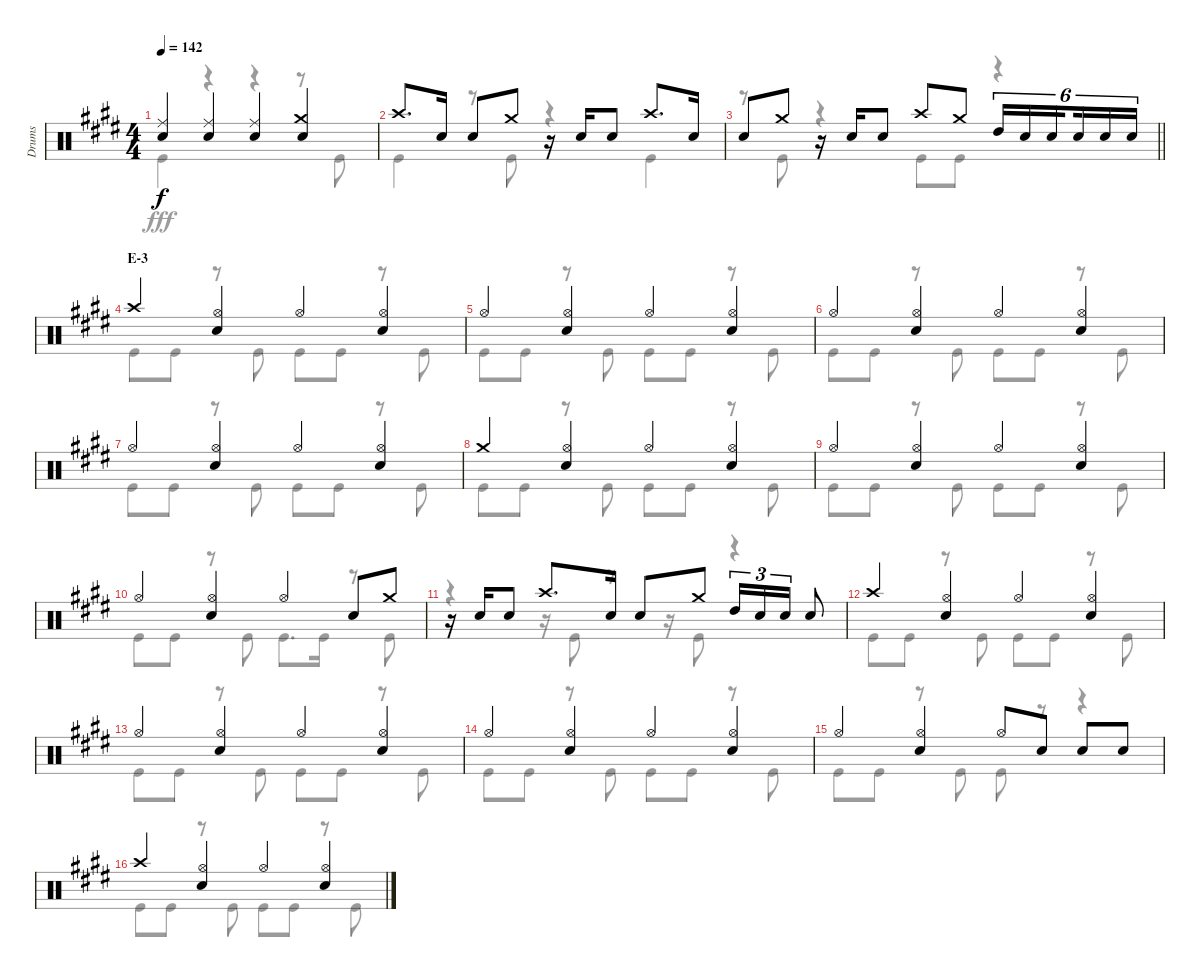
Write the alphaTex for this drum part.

\track ("Drums" "Drums") {instrument percussion}
\staff {score}
\articulation defaults
\voice
\ts (4 4)
\tempo 142
\clef neutral
\ks e
("Ride (middle)" "Snare (hit) 2").4{dy f} ("Ride (middle)" "Snare (hit) 2").4 ("Ride (middle)" "Snare (hit) 2").4 ("Crash medium (hit)" "Snare (hit) 2").4 |
"Crash high (hit)".8{d} "Snare (hit) 2".16 "Snare (hit) 2".8 "Crash medium (hit)".8 r.16 "Snare (hit) 2".16 "Snare (hit) 2".8 "Crash high (hit)".8{d} "Snare (hit) 2".16 |
\barLineRight lightlight "Snare (hit) 2".8 "Crash medium (hit)".8
r.16 "Snare (hit) 2".16 "Snare (hit) 2".8 "Crash high (hit)".8 "Crash medium (hit)".8 "High Tom (hit)".16{tu (6 4)} "Snare (hit) 2".16{tu (6 4)} "Snare (hit) 2".16{tu (6 4) beam splitsecondary} "Snare (hit) 2".16{tu (6 4)} "Snare (hit) 2".16{tu (6 4)} "Snare (hit) 2".16{tu (6 4)} |
\section ("" "E-3")
"Crash high (hit)".4 ("Hi-Hat (open)" "Snare (hit) 2").4 "Hi-Hat (open)".4 ("Hi-Hat (open)" "Snare (hit) 2").4 |
"Hi-Hat (open)".4 ("Hi-Hat (open)" "Snare (hit) 2").4 "Hi-Hat (open)".4 ("Hi-Hat (open)" "Snare (hit) 2").4 |
"Hi-Hat (open)".4 ("Hi-Hat (open)" "Snare (hit) 2").4 "Hi-Hat (open)".4 ("Hi-Hat (open)" "Snare (hit) 2").4 |
"Hi-Hat (open)".4 ("Hi-Hat (open)" "Snare (hit) 2").4 "Hi-Hat (open)".4 ("Hi-Hat (open)" "Snare (hit) 2").4 |
"Crash medium (hit)".4 ("Hi-Hat (open)" "Snare (hit) 2").4 "Hi-Hat (open)".4 ("Hi-Hat (open)" "Snare (hit) 2").4 |
"Hi-Hat (open)".4 ("Hi-Hat (open)" "Snare (hit) 2").4 "Hi-Hat (open)".4 ("Hi-Hat (open)" "Snare (hit) 2").4 |
"Hi-Hat (open)".4 ("Hi-Hat (open)" "Snare (hit) 2").4 "Hi-Hat (open)".4 "Snare (hit) 2".8 "Crash medium (hit)".8 |
r.16 "Snare (hit) 2".16 "Snare (hit) 2".8 "Crash high (hit)".8{d} "Snare (hit) 2".16 "Snare (hit) 2".8 "Crash medium (hit)".8 "High Tom (hit)".16{tu (3 2)} "Snare (hit) 2".16{tu (3 2)} "Snare (hit) 2".16{tu (3 2)} "Snare (hit) 2".8 |
"Crash high (hit)".4 ("Hi-Hat (open)" "Snare (hit) 2").4 "Hi-Hat (open)".4 ("Hi-Hat (open)" "Snare (hit) 2").4 |
"Hi-Hat (open)".4 ("Hi-Hat (open)" "Snare (hit) 2").4 "Hi-Hat (open)".4 ("Hi-Hat (open)" "Snare (hit) 2").4 |
"Hi-Hat (open)".4 ("Hi-Hat (open)" "Snare (hit) 2").4 "Hi-Hat (open)".4 ("Hi-Hat (open)" "Snare (hit) 2").4 |
"Hi-Hat (open)".4 ("Hi-Hat (open)" "Snare (hit) 2").4 "Hi-Hat (open)".8 "Snare (hit) 2".8 "Snare (hit) 2".8 "Snare (hit) 2".8 |
"Crash high (hit)".4 ("Hi-Hat (open)" "Snare (hit) 2").4 "Hi-Hat (open)".4 ("Hi-Hat (open)" "Snare (hit) 2").4
\voice
\clef neutral
\ottava regular
\simile none
\ks e "Kick (hit)".4{dy fff}
r.4 r.4 r.8 "Kick (hit)".8 |
"Kick (hit)".4 r.8 "Kick (hit)".8 r.4 "Kick (hit)".4 |
\barLineRight lightlight
r.8 "Kick (hit)".8 r.4 "Kick (hit)".8 "Kick (hit)".8 r.4 |
"Kick (hit)".8 "Kick (hit)".8 r.8 "Kick (hit)".8 "Kick (hit)".8 "Kick (hit)".8 r.8 "Kick (hit)".8 |
"Kick (hit)".8 "Kick (hit)".8 r.8 "Kick (hit)".8 "Kick (hit)".8 "Kick (hit)".8 r.8 "Kick (hit)".8 |
"Kick (hit)".8 "Kick (hit)".8 r.8 "Kick (hit)".8 "Kick (hit)".8 "Kick (hit)".8 r.8 "Kick (hit)".8 |
"Kick (hit)".8 "Kick (hit)".8 r.8 "Kick (hit)".8 "Kick (hit)".8 "Kick (hit)".8 r.8 "Kick (hit)".8 |
"Kick (hit)".8 "Kick (hit)".8 r.8 "Kick (hit)".8 "Kick (hit)".8 "Kick (hit)".8 r.8 "Kick (hit)".8 |
"Kick (hit)".8 "Kick (hit)".8 r.8 "Kick (hit)".8 "Kick (hit)".8 "Kick (hit)".8 r.8 "Kick (hit)".8 |
"Kick (hit)".8 "Kick (hit)".8 r.8 "Kick (hit)".8 "Kick (hit)".8{d} "Kick (hit)".16 r.8 "Kick (hit)".8 |
r.4 r.16 "Kick (hit)".8 r.8 r.16 "Kick (hit)".8 r.4 |
"Kick (hit)".8 "Kick (hit)".8 r.8 "Kick (hit)".8 "Kick (hit)".8 "Kick (hit)".8 r.8 "Kick (hit)".8 |
"Kick (hit)".8 "Kick (hit)".8 r.8 "Kick (hit)".8 "Kick (hit)".8 "Kick (hit)".8 r.8 "Kick (hit)".8 |
"Kick (hit)".8 "Kick (hit)".8 r.8 "Kick (hit)".8 "Kick (hit)".8 "Kick (hit)".8 r.8 "Kick (hit)".8 |
"Kick (hit)".8 "Kick (hit)".8 r.8 "Kick (hit)".8 "Kick (hit)".8 r.8 r.4 |
"Kick (hit)".8 "Kick (hit)".8 r.8 "Kick (hit)".8 "Kick (hit)".8 "Kick (hit)".8 r.8 "Kick (hit)".8
